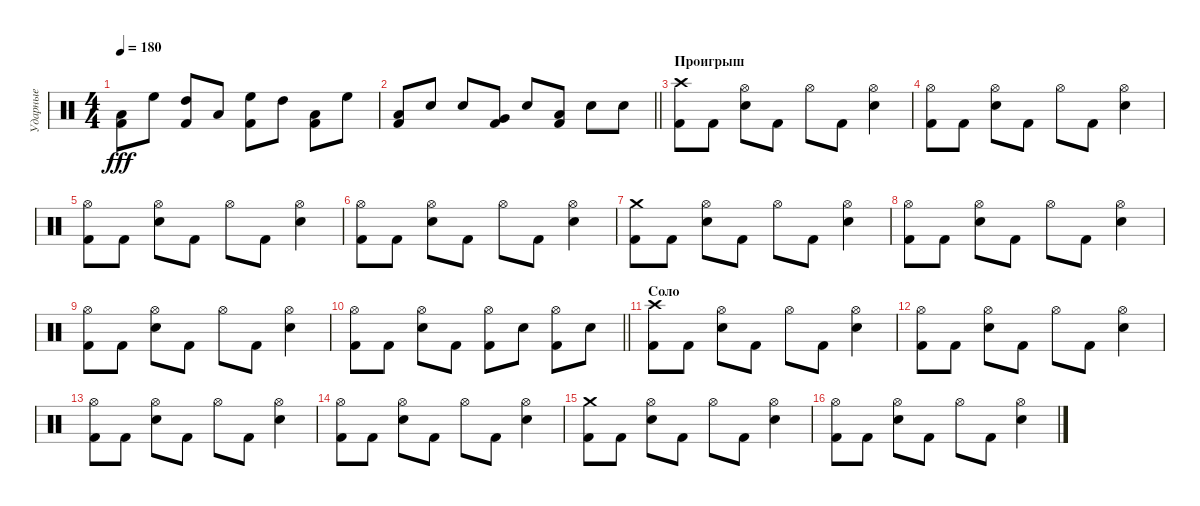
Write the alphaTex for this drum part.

\track ("Ударные" "Ударные") {instrument percussion}
\staff {score}
\articulation defaults
\ts (4 4)
\tempo 180
\clef neutral
\ks c
("Low Floor Tom (hit)" "Kick (hit) 2").8{dy fff} "High Floor Tom (hit)".8 ("High Tom (hit)" "Kick (hit) 2").8 "Low Tom (hit)".8 ("High Floor Tom (hit)" "Kick (hit) 2").8 "High Tom (hit)".8 ("Low Tom (hit)" "Kick (hit) 2").8 "High Floor Tom (hit)".8 |
\barLineRight lightlight
("Low Tom (hit)" "Kick (hit) 2").8 "Snare (hit) 2".8 "Snare (hit) 2".8 ("Very Low Tom (hit)" "Kick (hit) 2").8 "Snare (hit) 2".8 ("Low Floor Tom (hit)" "Kick (hit) 2").8 "Snare (hit) 2".8 "Snare (hit) 2".8 |
\section ("" "Проигрыш")
("Crash high (hit)" "Kick (hit) 2").8 "Kick (hit) 2".8 ("Hi-Hat (open)" "Snare (hit) 2").8 "Kick (hit) 2".8 "Hi-Hat (open)".8 "Kick (hit) 2".8 ("Hi-Hat (open)" "Snare (hit) 2").4 |
("Hi-Hat (open)" "Kick (hit) 2").8 "Kick (hit) 2".8 ("Hi-Hat (open)" "Snare (hit) 2").8 "Kick (hit) 2".8 "Hi-Hat (open)".8 "Kick (hit) 2".8 ("Hi-Hat (open)" "Snare (hit) 2").4 |
("Hi-Hat (open)" "Kick (hit) 2").8 "Kick (hit) 2".8 ("Hi-Hat (open)" "Snare (hit) 2").8 "Kick (hit) 2".8 "Hi-Hat (open)".8 "Kick (hit) 2".8 ("Hi-Hat (open)" "Snare (hit) 2").4 |
("Hi-Hat (open)" "Kick (hit) 2").8 "Kick (hit) 2".8 ("Hi-Hat (open)" "Snare (hit) 2").8 "Kick (hit) 2".8 "Hi-Hat (open)".8 "Kick (hit) 2".8 ("Hi-Hat (open)" "Snare (hit) 2").4 |
("Crash medium (hit)" "Kick (hit) 2").8 "Kick (hit) 2".8 ("Hi-Hat (open)" "Snare (hit) 2").8 "Kick (hit) 2".8 "Hi-Hat (open)".8 "Kick (hit) 2".8 ("Hi-Hat (open)" "Snare (hit) 2").4 |
("Hi-Hat (open)" "Kick (hit) 2").8 "Kick (hit) 2".8 ("Hi-Hat (open)" "Snare (hit) 2").8 "Kick (hit) 2".8 "Hi-Hat (open)".8 "Kick (hit) 2".8 ("Hi-Hat (open)" "Snare (hit) 2").4 |
("Hi-Hat (open)" "Kick (hit) 2").8 "Kick (hit) 2".8 ("Hi-Hat (open)" "Snare (hit) 2").8 "Kick (hit) 2".8 "Hi-Hat (open)".8 "Kick (hit) 2".8 ("Hi-Hat (open)" "Snare (hit) 2").4 |
\barLineRight lightlight
("Hi-Hat (open)" "Kick (hit) 2").8 "Kick (hit) 2".8 ("Hi-Hat (open)" "Snare (hit) 2").8 "Kick (hit) 2".8 ("Hi-Hat (open)" "Kick (hit) 2").8 "Snare (hit) 2".8 ("Hi-Hat (open)" "Kick (hit) 2").8 "Snare (hit) 2".8 |
\section ("" "Соло")
("Crash high (hit)" "Kick (hit) 2").8 "Kick (hit) 2".8 ("Hi-Hat (open)" "Snare (hit) 2").8 "Kick (hit) 2".8 "Hi-Hat (open)".8 "Kick (hit) 2".8 ("Hi-Hat (open)" "Snare (hit) 2").4 |
("Hi-Hat (open)" "Kick (hit) 2").8 "Kick (hit) 2".8 ("Hi-Hat (open)" "Snare (hit) 2").8 "Kick (hit) 2".8 "Hi-Hat (open)".8 "Kick (hit) 2".8 ("Hi-Hat (open)" "Snare (hit) 2").4 |
("Hi-Hat (open)" "Kick (hit) 2").8 "Kick (hit) 2".8 ("Hi-Hat (open)" "Snare (hit) 2").8 "Kick (hit) 2".8 "Hi-Hat (open)".8 "Kick (hit) 2".8 ("Hi-Hat (open)" "Snare (hit) 2").4 |
("Hi-Hat (open)" "Kick (hit) 2").8 "Kick (hit) 2".8 ("Hi-Hat (open)" "Snare (hit) 2").8 "Kick (hit) 2".8 "Hi-Hat (open)".8 "Kick (hit) 2".8 ("Hi-Hat (open)" "Snare (hit) 2").4 |
("Crash medium (hit)" "Kick (hit) 2").8 "Kick (hit) 2".8 ("Hi-Hat (open)" "Snare (hit) 2").8 "Kick (hit) 2".8 "Hi-Hat (open)".8 "Kick (hit) 2".8 ("Hi-Hat (open)" "Snare (hit) 2").4 |
("Hi-Hat (open)" "Kick (hit) 2").8 "Kick (hit) 2".8 ("Hi-Hat (open)" "Snare (hit) 2").8 "Kick (hit) 2".8 "Hi-Hat (open)".8 "Kick (hit) 2".8 ("Hi-Hat (open)" "Snare (hit) 2").4
